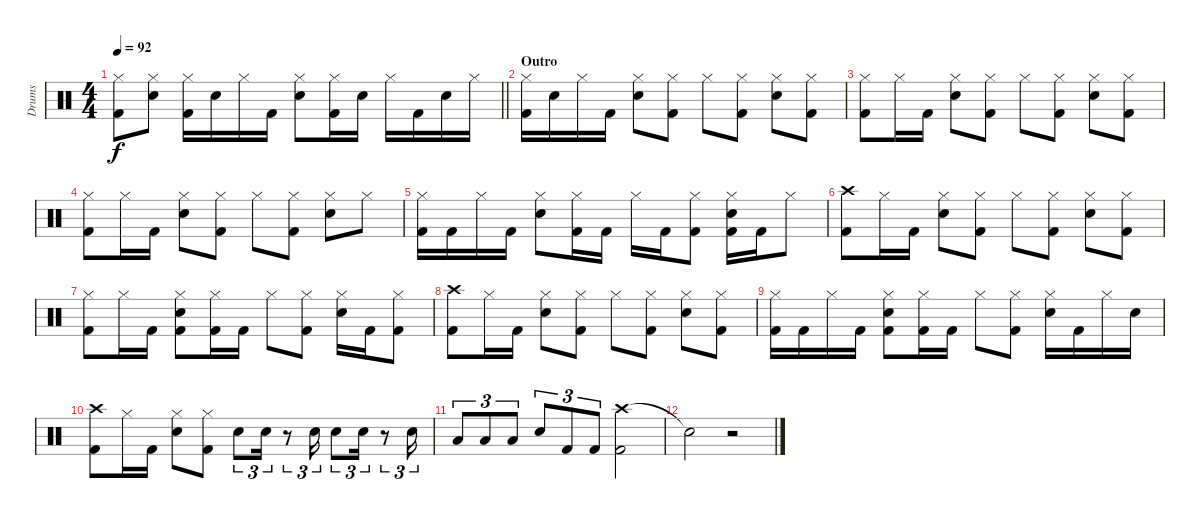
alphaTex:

\track ("Drums" "Drums") {instrument percussion}
\staff {score}
\articulation defaults
\ts (4 4)
\tempo 92
\clef neutral
\barLineRight lightlight
\ks c
("Hi-Hat (closed)" "Kick (hit) 2").8{dy f} ("Hi-Hat (closed)" "Electric Snare (hit)").8 ("Hi-Hat (closed)" "Kick (hit) 2").16 "Electric Snare (hit)".16 "Hi-Hat (closed)".16 "Kick (hit) 2".16 ("Hi-Hat (closed)" "Electric Snare (hit)").8 ("Hi-Hat (closed)" "Kick (hit) 2").16 "Electric Snare (hit)".16 "Hi-Hat (closed)".16 "Kick (hit) 2".16 "Electric Snare (hit)".16 "Hi-Hat (closed)".16 |
\section ("" "Outro")
("Hi-Hat (closed)" "Kick (hit) 2").16 "Electric Snare (hit)".16 "Hi-Hat (closed)".16 "Kick (hit) 2".16 ("Hi-Hat (closed)" "Electric Snare (hit)").8 ("Hi-Hat (closed)" "Kick (hit) 2").8 "Hi-Hat (closed)".8 ("Hi-Hat (closed)" "Kick (hit) 2").8 ("Hi-Hat (closed)" "Electric Snare (hit)").8 ("Hi-Hat (closed)" "Kick (hit) 2").8 |
("Hi-Hat (closed)" "Kick (hit) 2").8 "Hi-Hat (closed)".16 "Kick (hit) 2".16 ("Hi-Hat (closed)" "Electric Snare (hit)").8 ("Hi-Hat (closed)" "Kick (hit) 2").8 "Hi-Hat (closed)".8 ("Hi-Hat (closed)" "Kick (hit) 2").8 ("Hi-Hat (closed)" "Electric Snare (hit)").8 ("Hi-Hat (closed)" "Kick (hit) 2").8 |
("Hi-Hat (closed)" "Kick (hit) 2").8 "Hi-Hat (closed)".16 "Kick (hit) 2".16 ("Hi-Hat (closed)" "Electric Snare (hit)").8 ("Hi-Hat (closed)" "Kick (hit) 2").8 "Hi-Hat (closed)".8 ("Hi-Hat (closed)" "Kick (hit) 2").8 ("Hi-Hat (closed)" "Electric Snare (hit)").8 "Hi-Hat (closed)".8 |
("Hi-Hat (closed)" "Kick (hit) 2").16 "Kick (hit) 2".16 "Hi-Hat (closed)".16 "Kick (hit) 2".16 ("Hi-Hat (closed)" "Electric Snare (hit)").8 ("Hi-Hat (closed)" "Kick (hit) 2").16 "Kick (hit) 2".16 "Hi-Hat (closed)".16 "Kick (hit) 2".16 ("Hi-Hat (closed)" "Kick (hit) 2").8 ("Hi-Hat (closed)" "Electric Snare (hit)" "Kick (hit) 2").16 "Kick (hit) 2".16 "Hi-Hat (closed)".8 |
("Crash high (hit)" "Kick (hit) 2").8 "Hi-Hat (closed)".16 "Kick (hit) 2".16 ("Hi-Hat (closed)" "Electric Snare (hit)").8 ("Hi-Hat (closed)" "Kick (hit) 2").8 "Hi-Hat (closed)".8 ("Hi-Hat (closed)" "Kick (hit) 2").8 ("Hi-Hat (closed)" "Electric Snare (hit)").8 ("Hi-Hat (closed)" "Kick (hit) 2").8 |
("Hi-Hat (closed)" "Kick (hit) 2").8 "Hi-Hat (closed)".16 "Kick (hit) 2".16 ("Hi-Hat (closed)" "Electric Snare (hit)" "Kick (hit) 2").8 ("Hi-Hat (closed)" "Kick (hit) 2").16 "Kick (hit) 2".16 "Hi-Hat (closed)".8 ("Hi-Hat (closed)" "Kick (hit) 2").8 ("Hi-Hat (closed)" "Electric Snare (hit)").16 "Kick (hit) 2".16 ("Hi-Hat (closed)" "Kick (hit) 2").8 |
("Crash high (hit)" "Kick (hit) 2").8 "Hi-Hat (closed)".16 "Kick (hit) 2".16 ("Hi-Hat (closed)" "Electric Snare (hit)").8 ("Hi-Hat (closed)" "Kick (hit) 2").8 "Hi-Hat (closed)".8 ("Hi-Hat (closed)" "Kick (hit) 2").8 ("Hi-Hat (closed)" "Electric Snare (hit)").8 ("Hi-Hat (closed)" "Kick (hit) 2").8 |
("Hi-Hat (closed)" "Kick (hit) 2").16 "Kick (hit) 2".16 "Hi-Hat (closed)".16 "Kick (hit) 2".16 ("Hi-Hat (closed)" "Electric Snare (hit)" "Kick (hit) 2").8 ("Hi-Hat (closed)" "Kick (hit) 2").16 "Kick (hit) 2".16 "Hi-Hat (closed)".8 ("Hi-Hat (closed)" "Kick (hit) 2").8 ("Hi-Hat (closed)" "Electric Snare (hit)").16 "Kick (hit) 2".16 "Hi-Hat (closed)".16 "Electric Snare (hit)".16 |
("Crash high (hit)" "Kick (hit) 2").8 "Hi-Hat (closed)".16 "Kick (hit) 2".16 ("Hi-Hat (closed)" "Electric Snare (hit)").8 ("Hi-Hat (closed)" "Kick (hit) 2").8 "Electric Snare (hit)".8{tu (3 2)} "Electric Snare (hit)".16{tu (3 2)} r.8{tu (3 2)} "Electric Snare (hit)".16{tu (3 2)} "Electric Snare (hit)".8{tu (3 2)} "Electric Snare (hit)".16{tu (3 2)} r.8{tu (3 2)} "Electric Snare (hit)".16{tu (3 2)} |
"Low Tom (hit)".8{tu (3 2)} "Low Tom (hit)".8{tu (3 2)} "Low Tom (hit)".8{tu (3 2)} "Electric Snare (hit)".8{tu (3 2)} "Kick (hit) 2".8{tu (3 2)} "Kick (hit) 2".8{tu (3 2)} ("Crash high (hit)" "Kick (hit) 2").2 |
"Snare (hit)"{t}.2 r.2
